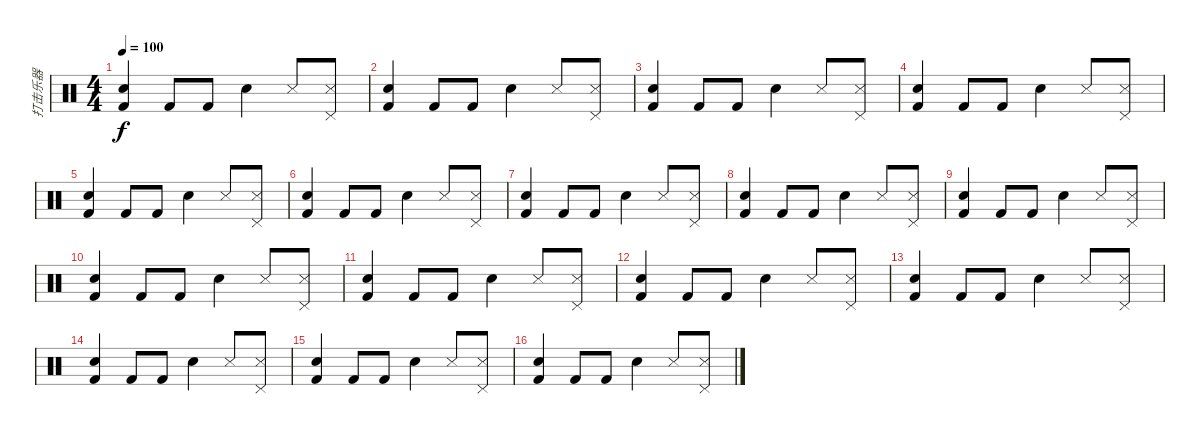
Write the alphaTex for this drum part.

\track ("打击乐器" "打击乐器") {instrument percussion}
\staff {score}
\articulation defaults
\ts (4 4)
\tempo 100
\clef neutral
\ks c
("Snare (hit) 2" "Kick (hit) 2").4{dy f} "Kick (hit) 2".8 "Kick (hit) 2".8 "Snare (hit) 2".4 "Snare (side stick) 3".8 ("Snare (side stick) 3" "Pedal Hi-Hat (hit)").8 |
("Snare (hit) 2" "Kick (hit) 2").4 "Kick (hit) 2".8 "Kick (hit) 2".8 "Snare (hit) 2".4 "Snare (side stick) 3".8 ("Snare (side stick) 3" "Pedal Hi-Hat (hit)").8 |
("Snare (hit) 2" "Kick (hit) 2").4 "Kick (hit) 2".8 "Kick (hit) 2".8 "Snare (hit) 2".4 "Snare (side stick) 3".8 ("Snare (side stick) 3" "Pedal Hi-Hat (hit)").8 |
("Snare (hit) 2" "Kick (hit) 2").4 "Kick (hit) 2".8 "Kick (hit) 2".8 "Snare (hit) 2".4 "Snare (side stick) 3".8 ("Snare (side stick) 3" "Pedal Hi-Hat (hit)").8 |
("Snare (hit) 2" "Kick (hit) 2").4 "Kick (hit) 2".8 "Kick (hit) 2".8 "Snare (hit) 2".4 "Snare (side stick) 3".8 ("Snare (side stick) 3" "Pedal Hi-Hat (hit)").8 |
("Snare (hit) 2" "Kick (hit) 2").4 "Kick (hit) 2".8 "Kick (hit) 2".8 "Snare (hit) 2".4 "Snare (side stick) 3".8 ("Snare (side stick) 3" "Pedal Hi-Hat (hit)").8 |
("Snare (hit) 2" "Kick (hit) 2").4 "Kick (hit) 2".8 "Kick (hit) 2".8 "Snare (hit) 2".4 "Snare (side stick) 3".8 ("Snare (side stick) 3" "Pedal Hi-Hat (hit)").8 |
("Snare (hit) 2" "Kick (hit) 2").4 "Kick (hit) 2".8 "Kick (hit) 2".8 "Snare (hit) 2".4 "Snare (side stick) 3".8 ("Snare (side stick) 3" "Pedal Hi-Hat (hit)").8 |
("Snare (hit) 2" "Kick (hit) 2").4 "Kick (hit) 2".8 "Kick (hit) 2".8 "Snare (hit) 2".4 "Snare (side stick) 3".8 ("Snare (side stick) 3" "Pedal Hi-Hat (hit)").8 |
("Snare (hit) 2" "Kick (hit) 2").4 "Kick (hit) 2".8 "Kick (hit) 2".8 "Snare (hit) 2".4 "Snare (side stick) 3".8 ("Snare (side stick) 3" "Pedal Hi-Hat (hit)").8 |
("Snare (hit) 2" "Kick (hit) 2").4 "Kick (hit) 2".8 "Kick (hit) 2".8 "Snare (hit) 2".4 "Snare (side stick) 3".8 ("Snare (side stick) 3" "Pedal Hi-Hat (hit)").8 |
("Snare (hit) 2" "Kick (hit) 2").4 "Kick (hit) 2".8 "Kick (hit) 2".8 "Snare (hit) 2".4 "Snare (side stick) 3".8 ("Snare (side stick) 3" "Pedal Hi-Hat (hit)").8 |
("Snare (hit) 2" "Kick (hit) 2").4 "Kick (hit) 2".8 "Kick (hit) 2".8 "Snare (hit) 2".4 "Snare (side stick) 3".8 ("Snare (side stick) 3" "Pedal Hi-Hat (hit)").8 |
("Snare (hit) 2" "Kick (hit) 2").4 "Kick (hit) 2".8 "Kick (hit) 2".8 "Snare (hit) 2".4 "Snare (side stick) 3".8 ("Snare (side stick) 3" "Pedal Hi-Hat (hit)").8 |
("Snare (hit) 2" "Kick (hit) 2").4 "Kick (hit) 2".8 "Kick (hit) 2".8 "Snare (hit) 2".4 "Snare (side stick) 3".8 ("Snare (side stick) 3" "Pedal Hi-Hat (hit)").8 |
("Snare (hit) 2" "Kick (hit) 2").4 "Kick (hit) 2".8 "Kick (hit) 2".8 "Snare (hit) 2".4 "Snare (side stick) 3".8 ("Snare (side stick) 3" "Pedal Hi-Hat (hit)").8
